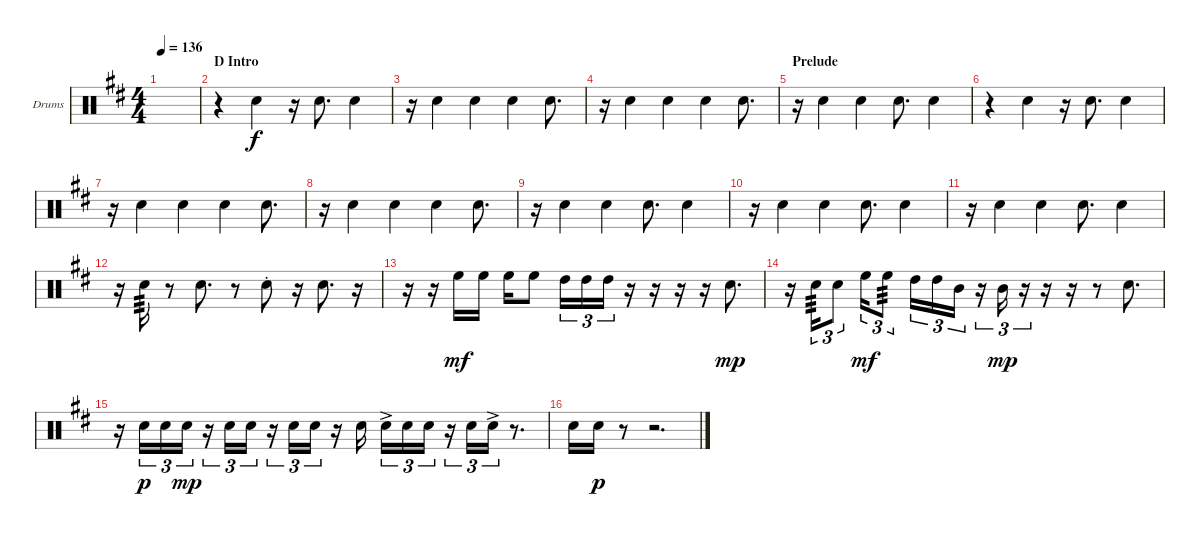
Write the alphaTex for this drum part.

\bracketExtendMode groupsimilarinstruments
\firstSystemTrackNameOrientation horizontal
\otherSystemsTrackNameOrientation horizontal
\track ("Snare" "Drums") {instrument percussion}
\staff {score}
\articulation defaults
\ts (4 4)
\tempo 136
\clef neutral
\ks d
|
\section ("" "D Intro")
r.4 "Snare (hit) 2".4 r.16 "Snare (hit) 2".8{d} "Snare (hit) 2".4 |
r.16 "Snare (hit) 2".4 "Snare (hit) 2".4 "Snare (hit) 2".4 "Snare (hit) 2".8{d} |
r.16 "Snare (hit) 2".4 "Snare (hit) 2".4 "Snare (hit) 2".4 "Snare (hit) 2".8{d} |
\section ("" "Prelude")
r.16 "Snare (hit) 2".4 "Snare (hit) 2".4 "Snare (hit) 2".8{d} "Snare (hit) 2".4 |
r.4 "Snare (hit) 2".4 r.16 "Snare (hit) 2".8{d} "Snare (hit) 2".4 |
r.16 "Snare (hit) 2".4 "Snare (hit) 2".4 "Snare (hit) 2".4 "Snare (hit) 2".8{d} |
r.16 "Snare (hit) 2".4 "Snare (hit) 2".4 "Snare (hit) 2".4 "Snare (hit) 2".8{d} |
r.16 "Snare (hit) 2".4 "Snare (hit) 2".4 "Snare (hit) 2".8{d} "Snare (hit) 2".4 |
r.16 "Snare (hit) 2".4 "Snare (hit) 2".4 "Snare (hit) 2".8{d} "Snare (hit) 2".4 |
r.16 "Snare (hit) 2".4 "Snare (hit) 2".4 "Snare (hit) 2".8{d} "Snare (hit) 2".4 |
r.16 "Snare (hit) 2".16{tp 3} r.8 "Snare (hit) 2".8{d} r.8 "Snare (hit) 2"{st}.8 r.16 "Snare (hit) 2".8{d} r.16 |
r.16 r.16 "High Floor Tom (hit)".16{dy mf} "High Floor Tom (hit)".16 "High Floor Tom (hit)".16 "High Floor Tom (hit)".8 "High Tom (hit)".16{tu (3 2)} "High Tom (hit)".16{tu (3 2)} "High Tom (hit)".16{tu (3 2)} r.16 r.16 r.16 r.16 "Snare (hit) 2".8{d dy mp} |
r.16 "Snare (hit) 2".16{tu (3 2) tp 3} "Snare (hit) 2".8{tu (3 2)} "High Floor Tom (hit)".16{tu (3 2) dy mf} "High Floor Tom (hit)".8{tu (3 2) tp 3} "High Tom (hit)".16{tu (3 2)} "High Tom (hit)".16{tu (3 2)} "Mid Tom (hit)".16{tu (3 2)} r.16{tu (3 2)} "Mid Tom (hit)".16{tu (3 2) dy mp} r.16{tu (3 2)} r.16 r.16 r.8 "Snare (hit) 2".8{d} |
r.16 "Snare (hit) 2".16{tu (3 2) dy p} "Snare (hit) 2".16{tu (3 2)} "Snare (hit) 2".16{tu (3 2) dy mp} r.16{tu (3 2)} "Snare (hit) 2".16{tu (3 2)} "Snare (hit) 2".16{tu (3 2)} r.16{tu (3 2)} "Snare (hit) 2".16{tu (3 2)} "Snare (hit) 2".16{tu (3 2)} r.16 "Snare (hit) 2".16 "Snare (hit) 2"{ac}.16{tu (3 2)} "Snare (hit) 2".16{tu (3 2)} "Snare (hit) 2".16{tu (3 2)} r.16{tu (3 2)} "Snare (hit) 2".16{tu (3 2)} "Snare (hit) 2"{ac}.16{tu (3 2)} r.8{d} |
"Snare (hit) 2".16 "Snare (hit) 2".16{dy p} r.8 r.2{d}
